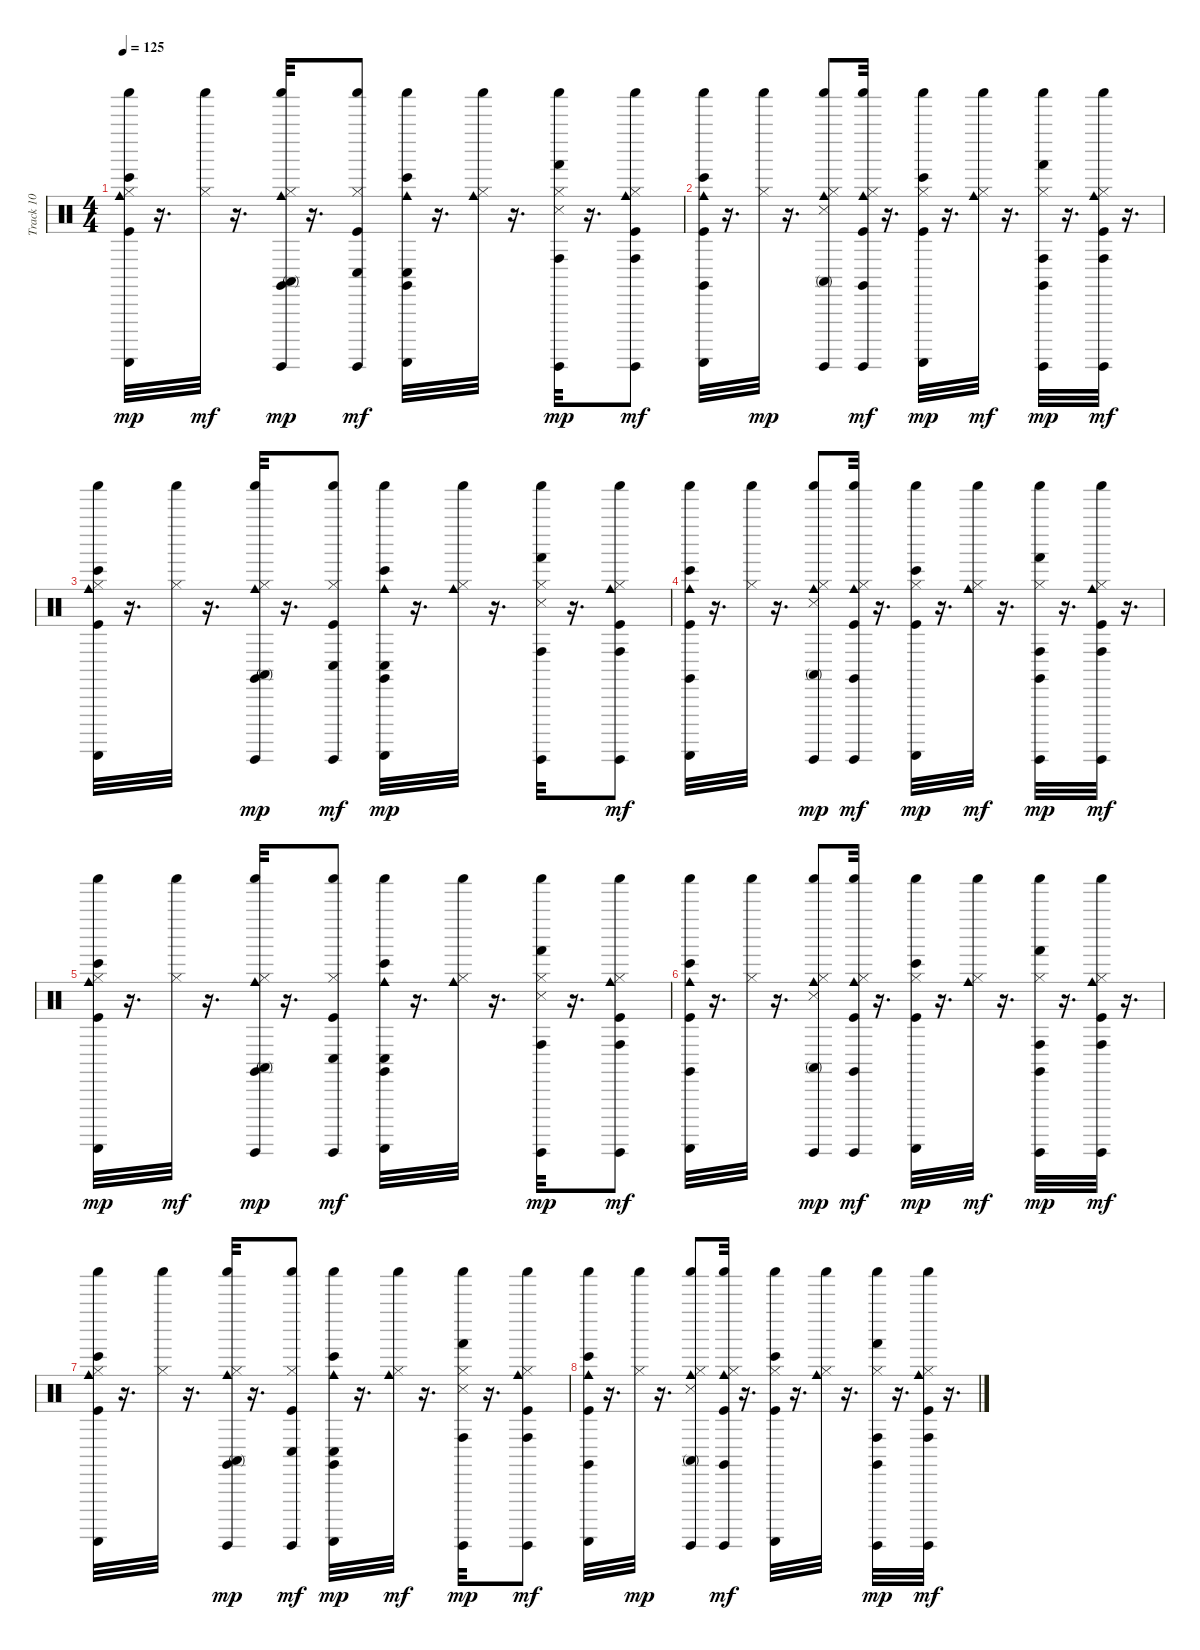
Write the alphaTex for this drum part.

\track ("Track 10" "Track 10") {instrument percussion}
\staff {score}
\articulation defaults
\ts (4 4)
\tempo 125
\clef neutral
\ks c
("Shaker (hit)" "Bongo High (hit)" "Cowbell medium (hit)" "Guiro (scrap-return)" "Kick (hit)" "Hi-Hat (closed)").32{dy mp} r.16{d} ("Shaker (hit)" "Hi-Hat (closed)").32{dy mf} r.16{d} ("Shaker (hit)" "Claves (hit)" "Conga high (mute)" "Cowbell medium (hit)" "Guiro (hit)" "Hi-Hat (closed)").32{dy mp} r.16{d} ("Shaker (hit)" "Conga low (hit)" "Guiro (hit)" "Kick (hit)" "Hi-Hat (closed)").8{dy mf} ("Shaker (hit)" "Claves (hit)" "Conga low (hit)" "Bongo High (hit)" "Cowbell medium (hit)" "Guiro (scrap-return)").32 r.16{d} ("Shaker (hit)" "Cowbell medium (hit)" "Hi-Hat (closed)").32 r.16{d} ("Shaker (hit)" "Conga high (hit)" "Hand (hit)" "Guiro (hit)" "Hi-Hat (closed)" "Snare (side stick) 3").32{dy mp} r.16{d} ("Shaker (hit)" "Conga high (hit)" "Cowbell medium (hit)" "Guiro (hit)" "Kick (hit)" "Hi-Hat (closed)").8{dy mf} |
("Shaker (hit)" "Claves (hit)" "Bongo High (hit)" "Cowbell medium (hit)" "Guiro (scrap-return)" "Kick (hit)").32 r.16{d} ("Shaker (hit)" "Hi-Hat (closed)").32{dy mp} r.16{d} ("Shaker (hit)" "Conga high (mute)" "Cowbell medium (hit)" "Guiro (hit)" "Hi-Hat (closed)" "Snare (side stick) 3").8 ("Shaker (hit)" "Claves (hit)" "Cowbell medium (hit)" "Guiro (hit)" "Kick (hit)" "Hi-Hat (closed)").32{dy mf} r.16{d} ("Shaker (hit)" "Bongo High (hit)" "Guiro (scrap-return)" "Kick (hit)" "Hi-Hat (closed)").32{dy mp} r.16{d} ("Shaker (hit)" "Cowbell medium (hit)" "Hi-Hat (closed)").32{dy mf} r.16{d} ("Shaker (hit)" "Claves (hit)" "Conga high (hit)" "Hand (hit)" "Guiro (hit)" "Hi-Hat (closed)").32{dy mp} r.16{d} ("Shaker (hit)" "Conga high (hit)" "Cowbell medium (hit)" "Guiro (hit)" "Kick (hit)" "Hi-Hat (closed)").32{dy mf} r.16{d} |
("Shaker (hit)" "Bongo High (hit)" "Cowbell medium (hit)" "Guiro (scrap-return)" "Kick (hit)" "Hi-Hat (closed)").32 r.16{d} ("Shaker (hit)" "Hi-Hat (closed)").32 r.16{d} ("Shaker (hit)" "Claves (hit)" "Conga high (mute)" "Cowbell medium (hit)" "Guiro (hit)" "Hi-Hat (closed)").32{dy mp} r.16{d} ("Shaker (hit)" "Conga low (hit)" "Guiro (hit)" "Kick (hit)" "Hi-Hat (closed)").8{dy mf} ("Shaker (hit)" "Claves (hit)" "Conga low (hit)" "Bongo High (hit)" "Cowbell medium (hit)" "Guiro (scrap-return)").32{dy mp} r.16{d} ("Shaker (hit)" "Cowbell medium (hit)" "Hi-Hat (closed)").32 r.16{d} ("Shaker (hit)" "Conga high (hit)" "Hand (hit)" "Guiro (hit)" "Hi-Hat (closed)" "Snare (side stick) 3").32 r.16{d} ("Shaker (hit)" "Conga high (hit)" "Cowbell medium (hit)" "Guiro (hit)" "Kick (hit)" "Hi-Hat (closed)").8{dy mf} |
("Shaker (hit)" "Claves (hit)" "Bongo High (hit)" "Cowbell medium (hit)" "Guiro (scrap-return)" "Kick (hit)").32 r.16{d} ("Shaker (hit)" "Hi-Hat (closed)").32 r.16{d} ("Shaker (hit)" "Conga high (mute)" "Cowbell medium (hit)" "Guiro (hit)" "Hi-Hat (closed)" "Snare (side stick) 3").8{dy mp} ("Shaker (hit)" "Claves (hit)" "Cowbell medium (hit)" "Guiro (hit)" "Kick (hit)" "Hi-Hat (closed)").32{dy mf} r.16{d} ("Shaker (hit)" "Bongo High (hit)" "Guiro (scrap-return)" "Kick (hit)" "Hi-Hat (closed)").32{dy mp} r.16{d} ("Shaker (hit)" "Cowbell medium (hit)" "Hi-Hat (closed)").32{dy mf} r.16{d} ("Shaker (hit)" "Claves (hit)" "Conga high (hit)" "Hand (hit)" "Guiro (hit)" "Hi-Hat (closed)").32{dy mp} r.16{d} ("Shaker (hit)" "Conga high (hit)" "Cowbell medium (hit)" "Guiro (hit)" "Kick (hit)" "Hi-Hat (closed)").32{dy mf} r.16{d} |
("Shaker (hit)" "Bongo High (hit)" "Cowbell medium (hit)" "Guiro (scrap-return)" "Kick (hit)" "Hi-Hat (closed)").32{dy mp} r.16{d} ("Shaker (hit)" "Hi-Hat (closed)").32{dy mf} r.16{d} ("Shaker (hit)" "Claves (hit)" "Conga high (mute)" "Cowbell medium (hit)" "Guiro (hit)" "Hi-Hat (closed)").32{dy mp} r.16{d} ("Shaker (hit)" "Conga low (hit)" "Guiro (hit)" "Kick (hit)" "Hi-Hat (closed)").8{dy mf} ("Shaker (hit)" "Claves (hit)" "Conga low (hit)" "Bongo High (hit)" "Cowbell medium (hit)" "Guiro (scrap-return)").32 r.16{d} ("Shaker (hit)" "Cowbell medium (hit)" "Hi-Hat (closed)").32 r.16{d} ("Shaker (hit)" "Conga high (hit)" "Hand (hit)" "Guiro (hit)" "Hi-Hat (closed)" "Snare (side stick) 3").32{dy mp} r.16{d} ("Shaker (hit)" "Conga high (hit)" "Cowbell medium (hit)" "Guiro (hit)" "Kick (hit)" "Hi-Hat (closed)").8{dy mf} |
("Shaker (hit)" "Claves (hit)" "Bongo High (hit)" "Cowbell medium (hit)" "Guiro (scrap-return)" "Kick (hit)").32 r.16{d} ("Shaker (hit)" "Hi-Hat (closed)").32 r.16{d} ("Shaker (hit)" "Conga high (mute)" "Cowbell medium (hit)" "Guiro (hit)" "Hi-Hat (closed)" "Snare (side stick) 3").8{dy mp} ("Shaker (hit)" "Claves (hit)" "Cowbell medium (hit)" "Guiro (hit)" "Kick (hit)" "Hi-Hat (closed)").32{dy mf} r.16{d} ("Shaker (hit)" "Bongo High (hit)" "Guiro (scrap-return)" "Kick (hit)" "Hi-Hat (closed)").32{dy mp} r.16{d} ("Shaker (hit)" "Cowbell medium (hit)" "Hi-Hat (closed)").32{dy mf} r.16{d} ("Shaker (hit)" "Claves (hit)" "Conga high (hit)" "Hand (hit)" "Guiro (hit)" "Hi-Hat (closed)").32{dy mp} r.16{d} ("Shaker (hit)" "Conga high (hit)" "Cowbell medium (hit)" "Guiro (hit)" "Kick (hit)" "Hi-Hat (closed)").32{dy mf} r.16{d} |
("Shaker (hit)" "Bongo High (hit)" "Cowbell medium (hit)" "Guiro (scrap-return)" "Kick (hit)" "Hi-Hat (closed)").32 r.16{d} ("Shaker (hit)" "Hi-Hat (closed)").32 r.16{d} ("Shaker (hit)" "Claves (hit)" "Conga high (mute)" "Cowbell medium (hit)" "Guiro (hit)" "Hi-Hat (closed)").32{dy mp} r.16{d} ("Shaker (hit)" "Conga low (hit)" "Guiro (hit)" "Kick (hit)" "Hi-Hat (closed)").8{dy mf} ("Shaker (hit)" "Claves (hit)" "Conga low (hit)" "Bongo High (hit)" "Cowbell medium (hit)" "Guiro (scrap-return)").32{dy mp} r.16{d} ("Shaker (hit)" "Cowbell medium (hit)" "Hi-Hat (closed)").32{dy mf} r.16{d} ("Shaker (hit)" "Conga high (hit)" "Hand (hit)" "Guiro (hit)" "Hi-Hat (closed)" "Snare (side stick) 3").32{dy mp} r.16{d} ("Shaker (hit)" "Conga high (hit)" "Cowbell medium (hit)" "Guiro (hit)" "Kick (hit)" "Hi-Hat (closed)").8{dy mf} |
("Shaker (hit)" "Claves (hit)" "Bongo High (hit)" "Cowbell medium (hit)" "Guiro (scrap-return)" "Kick (hit)").32 r.16{d} ("Shaker (hit)" "Hi-Hat (closed)").32{dy mp} r.16{d} ("Shaker (hit)" "Conga high (mute)" "Cowbell medium (hit)" "Guiro (hit)" "Hi-Hat (closed)" "Snare (side stick) 3").8 ("Shaker (hit)" "Claves (hit)" "Cowbell medium (hit)" "Guiro (hit)" "Kick (hit)" "Hi-Hat (closed)").32{dy mf} r.16{d} ("Shaker (hit)" "Bongo High (hit)" "Guiro (scrap-return)" "Kick (hit)" "Hi-Hat (closed)").32 r.16{d} ("Shaker (hit)" "Cowbell medium (hit)" "Hi-Hat (closed)").32 r.16{d} ("Shaker (hit)" "Claves (hit)" "Conga high (hit)" "Hand (hit)" "Guiro (hit)" "Hi-Hat (closed)").32{dy mp} r.16{d} ("Shaker (hit)" "Conga high (hit)" "Cowbell medium (hit)" "Guiro (hit)" "Kick (hit)" "Hi-Hat (closed)").32{dy mf} r.16{d}
